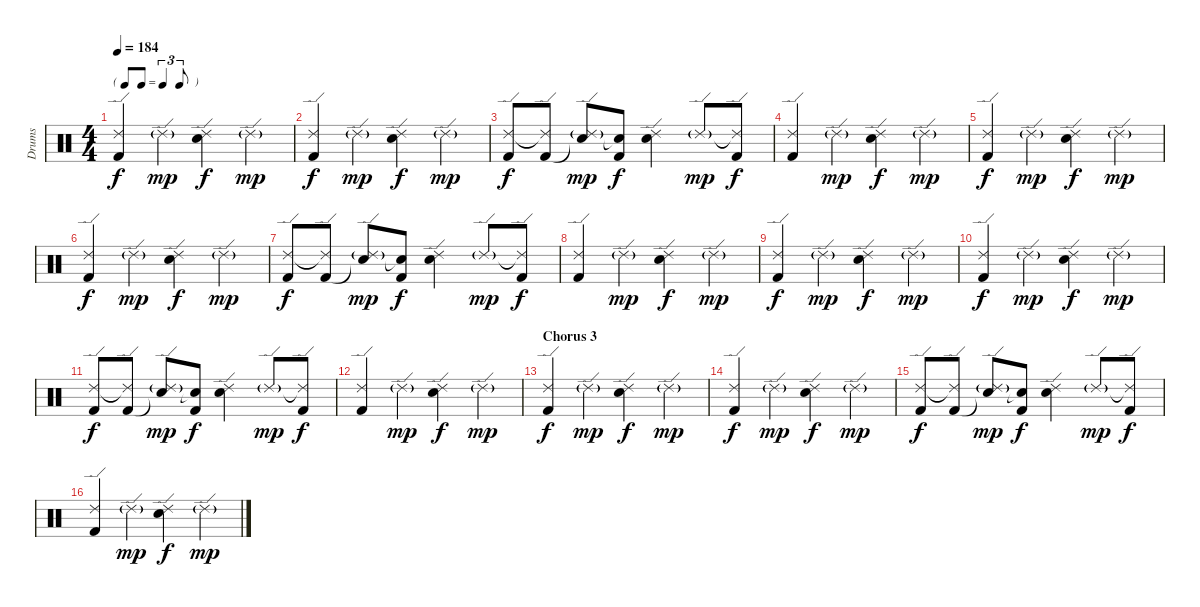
\track ("Drums" "Drums") {instrument percussion}
\staff {score}
\articulation defaults
\ts (4 4)
\tf triplet8th
\tempo 184
\clef neutral
\ks c
("Ride (edge) 2" "Kick (hit) 2").4{dy f} "Ride (edge) 2"{g}.4{dy mp} ("Ride (edge) 2" "Electric Snare (hit)").4{dy f} "Ride (edge) 2"{g}.4{dy mp} |
("Ride (edge) 2" "Kick (hit) 2").4{dy f} "Ride (edge) 2"{g}.4{dy mp} ("Ride (edge) 2" "Electric Snare (hit)").4{dy f} "Ride (edge) 2"{g}.4{dy mp} |
("Ride (edge) 2" "Kick (hit) 2").8{dy f} ("Ride (edge) 2"{t} "Kick (hit) 2").8 ("Ride (edge) 2"{g} "Snare (hit)"{t}).8{dy mp} ("Snare (hit)"{t} "Kick (hit) 2").8{dy f} ("Ride (edge) 2" "Electric Snare (hit)").4 "Ride (edge) 2"{g}.8{dy mp} ("Ride (edge) 2"{t} "Kick (hit) 2").8{dy f} |
("Ride (edge) 2" "Kick (hit) 2").4 "Ride (edge) 2"{g}.4{dy mp} ("Ride (edge) 2" "Electric Snare (hit)").4{dy f} "Ride (edge) 2"{g}.4{dy mp} |
("Ride (edge) 2" "Kick (hit) 2").4{dy f} "Ride (edge) 2"{g}.4{dy mp} ("Ride (edge) 2" "Electric Snare (hit)").4{dy f} "Ride (edge) 2"{g}.4{dy mp} |
("Ride (edge) 2" "Kick (hit) 2").4{dy f} "Ride (edge) 2"{g}.4{dy mp} ("Ride (edge) 2" "Electric Snare (hit)").4{dy f} "Ride (edge) 2"{g}.4{dy mp} |
("Ride (edge) 2" "Kick (hit) 2").8{dy f} ("Ride (edge) 2"{t} "Kick (hit) 2").8 ("Ride (edge) 2"{g} "Snare (hit)"{t}).8{dy mp} ("Snare (hit)"{t} "Kick (hit) 2").8{dy f} ("Ride (edge) 2" "Electric Snare (hit)").4 "Ride (edge) 2"{g}.8{dy mp} ("Ride (edge) 2"{t} "Kick (hit) 2").8{dy f} |
("Ride (edge) 2" "Kick (hit) 2").4 "Ride (edge) 2"{g}.4{dy mp} ("Ride (edge) 2" "Electric Snare (hit)").4{dy f} "Ride (edge) 2"{g}.4{dy mp} |
("Ride (edge) 2" "Kick (hit) 2").4{dy f} "Ride (edge) 2"{g}.4{dy mp} ("Ride (edge) 2" "Electric Snare (hit)").4{dy f} "Ride (edge) 2"{g}.4{dy mp} |
("Ride (edge) 2" "Kick (hit) 2").4{dy f} "Ride (edge) 2"{g}.4{dy mp} ("Ride (edge) 2" "Electric Snare (hit)").4{dy f} "Ride (edge) 2"{g}.4{dy mp} |
("Ride (edge) 2" "Kick (hit) 2").8{dy f} ("Ride (edge) 2"{t} "Kick (hit) 2").8 ("Ride (edge) 2"{g} "Snare (hit)"{t}).8{dy mp} ("Snare (hit)"{t} "Kick (hit) 2").8{dy f} ("Ride (edge) 2" "Electric Snare (hit)").4 "Ride (edge) 2"{g}.8{dy mp} ("Ride (edge) 2"{t} "Kick (hit) 2").8{dy f} |
("Ride (edge) 2" "Kick (hit) 2").4 "Ride (edge) 2"{g}.4{dy mp} ("Ride (edge) 2" "Electric Snare (hit)").4{dy f} "Ride (edge) 2"{g}.4{dy mp} |
\section ("" "Chorus 3")
("Ride (edge) 2" "Kick (hit) 2").4{dy f} "Ride (edge) 2"{g}.4{dy mp} ("Ride (edge) 2" "Electric Snare (hit)").4{dy f} "Ride (edge) 2"{g}.4{dy mp} |
("Ride (edge) 2" "Kick (hit) 2").4{dy f} "Ride (edge) 2"{g}.4{dy mp} ("Ride (edge) 2" "Electric Snare (hit)").4{dy f} "Ride (edge) 2"{g}.4{dy mp} |
("Ride (edge) 2" "Kick (hit) 2").8{dy f} ("Ride (edge) 2"{t} "Kick (hit) 2").8 ("Ride (edge) 2"{g} "Snare (hit)"{t}).8{dy mp} ("Snare (hit)"{t} "Kick (hit) 2").8{dy f} ("Ride (edge) 2" "Electric Snare (hit)").4 "Ride (edge) 2"{g}.8{dy mp} ("Ride (edge) 2"{t} "Kick (hit) 2").8{dy f} |
("Ride (edge) 2" "Kick (hit) 2").4 "Ride (edge) 2"{g}.4{dy mp} ("Ride (edge) 2" "Electric Snare (hit)").4{dy f} "Ride (edge) 2"{g}.4{dy mp}
